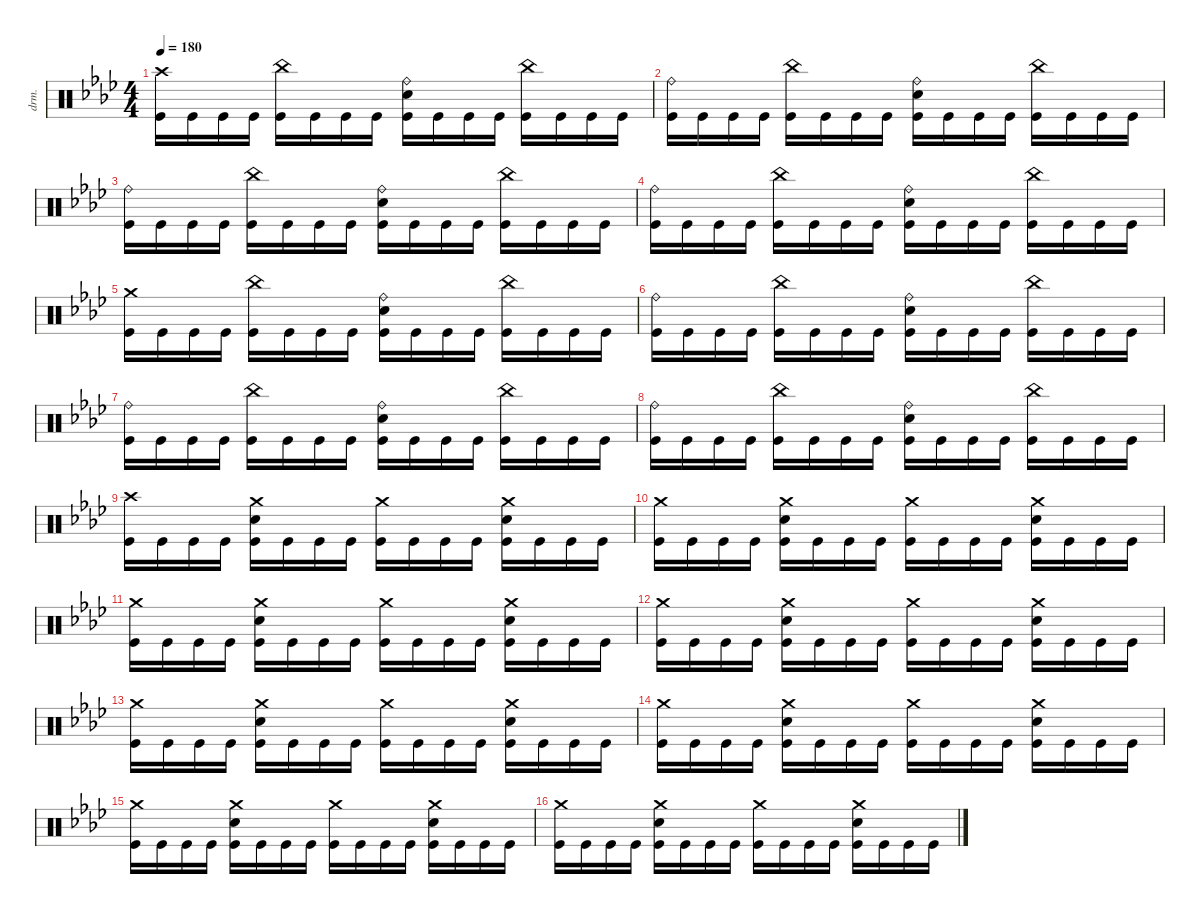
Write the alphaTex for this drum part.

\defaultSystemsLayout 4
\hideDynamics
\bracketExtendMode nobrackets
\track ("Percussion" "drm.") {instrument percussion}
\staff {score}
\articulation defaults
\ts (4 4)
\tempo 180
\clef neutral
\ks fminor
("Crash high (hit)"{acc forcenatural} "Kick (hit)"{acc forcenatural}).16{dy f beam Down} "Kick (hit)"{acc forcenatural}.16{beam Down} "Kick (hit)"{acc forcenatural}.16{beam Down} "Kick (hit)"{acc forcenatural}.16{beam Down} ("China (hit)"{acc forcenatural} "Kick (hit)"{acc forcenatural}).16{beam Down} "Kick (hit)"{acc forcenatural}.16{beam Down} "Kick (hit)"{acc forcenatural}.16{beam Down} "Kick (hit)"{acc forcenatural}.16{beam Down} ("Ride (bell)"{acc forcenatural} "Snare (hit) 2"{acc forcenatural} "Kick (hit)"{acc forcenatural}).16{beam Down} "Kick (hit)"{acc forcenatural}.16{beam Down} "Kick (hit)"{acc forcenatural}.16{beam Down} "Kick (hit)"{acc forcenatural}.16{beam Down} ("China (hit)"{acc forcenatural} "Kick (hit)"{acc forcenatural}).16{beam Down} "Kick (hit)"{acc forcenatural}.16{beam Down} "Kick (hit)"{acc forcenatural}.16{beam Down} "Kick (hit)"{acc forcenatural}.16{beam Down} |
("Ride (bell)"{acc forcenatural} "Kick (hit)"{acc forcenatural}).16{beam Down} "Kick (hit)"{acc forcenatural}.16{beam Down} "Kick (hit)"{acc forcenatural}.16{beam Down} "Kick (hit)"{acc forcenatural}.16{beam Down} ("China (hit)"{acc forcenatural} "Kick (hit)"{acc forcenatural}).16{beam Down} "Kick (hit)"{acc forcenatural}.16{beam Down} "Kick (hit)"{acc forcenatural}.16{beam Down} "Kick (hit)"{acc forcenatural}.16{beam Down} ("Ride (bell)"{acc forcenatural} "Snare (hit) 2"{acc forcenatural} "Kick (hit)"{acc forcenatural}).16{beam Down} "Kick (hit)"{acc forcenatural}.16{beam Down} "Kick (hit)"{acc forcenatural}.16{beam Down} "Kick (hit)"{acc forcenatural}.16{beam Down} ("China (hit)"{acc forcenatural} "Kick (hit)"{acc forcenatural}).16{beam Down} "Kick (hit)"{acc forcenatural}.16{beam Down} "Kick (hit)"{acc forcenatural}.16{beam Down} "Kick (hit)"{acc forcenatural}.16{beam Down} |
("Ride (bell)"{acc forcenatural} "Kick (hit)"{acc forcenatural}).16{beam Down} "Kick (hit)"{acc forcenatural}.16{beam Down} "Kick (hit)"{acc forcenatural}.16{beam Down} "Kick (hit)"{acc forcenatural}.16{beam Down} ("China (hit)"{acc forcenatural} "Kick (hit)"{acc forcenatural}).16{beam Down} "Kick (hit)"{acc forcenatural}.16{beam Down} "Kick (hit)"{acc forcenatural}.16{beam Down} "Kick (hit)"{acc forcenatural}.16{beam Down} ("Ride (bell)"{acc forcenatural} "Snare (hit) 2"{acc forcenatural} "Kick (hit)"{acc forcenatural}).16{beam Down} "Kick (hit)"{acc forcenatural}.16{beam Down} "Kick (hit)"{acc forcenatural}.16{beam Down} "Kick (hit)"{acc forcenatural}.16{beam Down} ("China (hit)"{acc forcenatural} "Kick (hit)"{acc forcenatural}).16{beam Down} "Kick (hit)"{acc forcenatural}.16{beam Down} "Kick (hit)"{acc forcenatural}.16{beam Down} "Kick (hit)"{acc forcenatural}.16{beam Down} |
("Ride (bell)"{acc forcenatural} "Kick (hit)"{acc forcenatural}).16{beam Down} "Kick (hit)"{acc forcenatural}.16{beam Down} "Kick (hit)"{acc forcenatural}.16{beam Down} "Kick (hit)"{acc forcenatural}.16{beam Down} ("China (hit)"{acc forcenatural} "Kick (hit)"{acc forcenatural}).16{beam Down} "Kick (hit)"{acc forcenatural}.16{beam Down} "Kick (hit)"{acc forcenatural}.16{beam Down} "Kick (hit)"{acc forcenatural}.16{beam Down} ("Ride (bell)"{acc forcenatural} "Snare (hit) 2"{acc forcenatural} "Kick (hit)"{acc forcenatural}).16{beam Down} "Kick (hit)"{acc forcenatural}.16{beam Down} "Kick (hit)"{acc forcenatural}.16{beam Down} "Kick (hit)"{acc forcenatural}.16{beam Down} ("China (hit)"{acc forcenatural} "Kick (hit)"{acc forcenatural}).16{beam Down} "Kick (hit)"{acc forcenatural}.16{beam Down} "Kick (hit)"{acc forcenatural}.16{beam Down} "Kick (hit)"{acc forcenatural}.16{beam Down} |
("Crash medium (hit)"{acc forcenatural} "Kick (hit)"{acc forcenatural}).16{beam Down} "Kick (hit)"{acc forcenatural}.16{beam Down} "Kick (hit)"{acc forcenatural}.16{beam Down} "Kick (hit)"{acc forcenatural}.16{beam Down} ("China (hit)"{acc forcenatural} "Kick (hit)"{acc forcenatural}).16{beam Down} "Kick (hit)"{acc forcenatural}.16{beam Down} "Kick (hit)"{acc forcenatural}.16{beam Down} "Kick (hit)"{acc forcenatural}.16{beam Down} ("Ride (bell)"{acc forcenatural} "Snare (hit) 2"{acc forcenatural} "Kick (hit)"{acc forcenatural}).16{beam Down} "Kick (hit)"{acc forcenatural}.16{beam Down} "Kick (hit)"{acc forcenatural}.16{beam Down} "Kick (hit)"{acc forcenatural}.16{beam Down} ("China (hit)"{acc forcenatural} "Kick (hit)"{acc forcenatural}).16{beam Down} "Kick (hit)"{acc forcenatural}.16{beam Down} "Kick (hit)"{acc forcenatural}.16{beam Down} "Kick (hit)"{acc forcenatural}.16{beam Down} |
("Ride (bell)"{acc forcenatural} "Kick (hit)"{acc forcenatural}).16{beam Down} "Kick (hit)"{acc forcenatural}.16{beam Down} "Kick (hit)"{acc forcenatural}.16{beam Down} "Kick (hit)"{acc forcenatural}.16{beam Down} ("China (hit)"{acc forcenatural} "Kick (hit)"{acc forcenatural}).16{beam Down} "Kick (hit)"{acc forcenatural}.16{beam Down} "Kick (hit)"{acc forcenatural}.16{beam Down} "Kick (hit)"{acc forcenatural}.16{beam Down} ("Ride (bell)"{acc forcenatural} "Snare (hit) 2"{acc forcenatural} "Kick (hit)"{acc forcenatural}).16{beam Down} "Kick (hit)"{acc forcenatural}.16{beam Down} "Kick (hit)"{acc forcenatural}.16{beam Down} "Kick (hit)"{acc forcenatural}.16{beam Down} ("China (hit)"{acc forcenatural} "Kick (hit)"{acc forcenatural}).16{beam Down} "Kick (hit)"{acc forcenatural}.16{beam Down} "Kick (hit)"{acc forcenatural}.16{beam Down} "Kick (hit)"{acc forcenatural}.16{beam Down} |
("Ride (bell)"{acc forcenatural} "Kick (hit)"{acc forcenatural}).16{beam Down} "Kick (hit)"{acc forcenatural}.16{beam Down} "Kick (hit)"{acc forcenatural}.16{beam Down} "Kick (hit)"{acc forcenatural}.16{beam Down} ("China (hit)"{acc forcenatural} "Kick (hit)"{acc forcenatural}).16{beam Down} "Kick (hit)"{acc forcenatural}.16{beam Down} "Kick (hit)"{acc forcenatural}.16{beam Down} "Kick (hit)"{acc forcenatural}.16{beam Down} ("Ride (bell)"{acc forcenatural} "Snare (hit) 2"{acc forcenatural} "Kick (hit)"{acc forcenatural}).16{beam Down} "Kick (hit)"{acc forcenatural}.16{beam Down} "Kick (hit)"{acc forcenatural}.16{beam Down} "Kick (hit)"{acc forcenatural}.16{beam Down} ("China (hit)"{acc forcenatural} "Kick (hit)"{acc forcenatural}).16{beam Down} "Kick (hit)"{acc forcenatural}.16{beam Down} "Kick (hit)"{acc forcenatural}.16{beam Down} "Kick (hit)"{acc forcenatural}.16{beam Down} |
("Ride (bell)"{acc forcenatural} "Kick (hit)"{acc forcenatural}).16{beam Down} "Kick (hit)"{acc forcenatural}.16{beam Down} "Kick (hit)"{acc forcenatural}.16{beam Down} "Kick (hit)"{acc forcenatural}.16{beam Down} ("China (hit)"{acc forcenatural} "Kick (hit)"{acc forcenatural}).16{beam Down} "Kick (hit)"{acc forcenatural}.16{beam Down} "Kick (hit)"{acc forcenatural}.16{beam Down} "Kick (hit)"{acc forcenatural}.16{beam Down} ("Ride (bell)"{acc forcenatural} "Snare (hit) 2"{acc forcenatural} "Kick (hit)"{acc forcenatural}).16{beam Down} "Kick (hit)"{acc forcenatural}.16{beam Down} "Kick (hit)"{acc forcenatural}.16{beam Down} "Kick (hit)"{acc forcenatural}.16{beam Down} ("China (hit)"{acc forcenatural} "Kick (hit)"{acc forcenatural}).16{beam Down} "Kick (hit)"{acc forcenatural}.16{beam Down} "Kick (hit)"{acc forcenatural}.16{beam Down} "Kick (hit)"{acc forcenatural}.16{beam Down} |
("Crash high (hit)"{acc forcenatural} "Kick (hit)"{acc forcenatural}).16{beam Down} "Kick (hit)"{acc forcenatural}.16{beam Down} "Kick (hit)"{acc forcenatural}.16{beam Down} "Kick (hit)"{acc forcenatural}.16{beam Down} ("Crash medium (hit)"{acc forcenatural} "Snare (hit) 2"{acc forcenatural} "Kick (hit)"{acc forcenatural}).16{beam Down} "Kick (hit)"{acc forcenatural}.16{beam Down} "Kick (hit)"{acc forcenatural}.16{beam Down} "Kick (hit)"{acc forcenatural}.16{beam Down} ("Crash medium (hit)"{acc forcenatural} "Kick (hit)"{acc forcenatural}).16{beam Down} "Kick (hit)"{acc forcenatural}.16{beam Down} "Kick (hit)"{acc forcenatural}.16{beam Down} "Kick (hit)"{acc forcenatural}.16{beam Down} ("Crash medium (hit)"{acc forcenatural} "Snare (hit) 2"{acc forcenatural} "Kick (hit)"{acc forcenatural}).16{beam Down} "Kick (hit)"{acc forcenatural}.16{beam Down} "Kick (hit)"{acc forcenatural}.16{beam Down} "Kick (hit)"{acc forcenatural}.16{beam Down} |
("Crash medium (hit)"{acc forcenatural} "Kick (hit)"{acc forcenatural}).16{beam Down} "Kick (hit)"{acc forcenatural}.16{beam Down} "Kick (hit)"{acc forcenatural}.16{beam Down} "Kick (hit)"{acc forcenatural}.16{beam Down} ("Crash medium (hit)"{acc forcenatural} "Snare (hit) 2"{acc forcenatural} "Kick (hit)"{acc forcenatural}).16{beam Down} "Kick (hit)"{acc forcenatural}.16{beam Down} "Kick (hit)"{acc forcenatural}.16{beam Down} "Kick (hit)"{acc forcenatural}.16{beam Down} ("Crash medium (hit)"{acc forcenatural} "Kick (hit)"{acc forcenatural}).16{beam Down} "Kick (hit)"{acc forcenatural}.16{beam Down} "Kick (hit)"{acc forcenatural}.16{beam Down} "Kick (hit)"{acc forcenatural}.16{beam Down} ("Crash medium (hit)"{acc forcenatural} "Snare (hit) 2"{acc forcenatural} "Kick (hit)"{acc forcenatural}).16{beam Down} "Kick (hit)"{acc forcenatural}.16{beam Down} "Kick (hit)"{acc forcenatural}.16{beam Down} "Kick (hit)"{acc forcenatural}.16{beam Down} |
("Crash medium (hit)"{acc forcenatural} "Kick (hit)"{acc forcenatural}).16{beam Down} "Kick (hit)"{acc forcenatural}.16{beam Down} "Kick (hit)"{acc forcenatural}.16{beam Down} "Kick (hit)"{acc forcenatural}.16{beam Down} ("Crash medium (hit)"{acc forcenatural} "Snare (hit) 2"{acc forcenatural} "Kick (hit)"{acc forcenatural}).16{beam Down} "Kick (hit)"{acc forcenatural}.16{beam Down} "Kick (hit)"{acc forcenatural}.16{beam Down} "Kick (hit)"{acc forcenatural}.16{beam Down} ("Crash medium (hit)"{acc forcenatural} "Kick (hit)"{acc forcenatural}).16{beam Down} "Kick (hit)"{acc forcenatural}.16{beam Down} "Kick (hit)"{acc forcenatural}.16{beam Down} "Kick (hit)"{acc forcenatural}.16{beam Down} ("Crash medium (hit)"{acc forcenatural} "Snare (hit) 2"{acc forcenatural} "Kick (hit)"{acc forcenatural}).16{beam Down} "Kick (hit)"{acc forcenatural}.16{beam Down} "Kick (hit)"{acc forcenatural}.16{beam Down} "Kick (hit)"{acc forcenatural}.16{beam Down} |
("Crash medium (hit)"{acc forcenatural} "Kick (hit)"{acc forcenatural}).16{beam Down} "Kick (hit)"{acc forcenatural}.16{beam Down} "Kick (hit)"{acc forcenatural}.16{beam Down} "Kick (hit)"{acc forcenatural}.16{beam Down} ("Crash medium (hit)"{acc forcenatural} "Snare (hit) 2"{acc forcenatural} "Kick (hit)"{acc forcenatural}).16{beam Down} "Kick (hit)"{acc forcenatural}.16{beam Down} "Kick (hit)"{acc forcenatural}.16{beam Down} "Kick (hit)"{acc forcenatural}.16{beam Down} ("Crash medium (hit)"{acc forcenatural} "Kick (hit)"{acc forcenatural}).16{beam Down} "Kick (hit)"{acc forcenatural}.16{beam Down} "Kick (hit)"{acc forcenatural}.16{beam Down} "Kick (hit)"{acc forcenatural}.16{beam Down} ("Crash medium (hit)"{acc forcenatural} "Snare (hit) 2"{acc forcenatural} "Kick (hit)"{acc forcenatural}).16{beam Down} "Kick (hit)"{acc forcenatural}.16{beam Down} "Kick (hit)"{acc forcenatural}.16{beam Down} "Kick (hit)"{acc forcenatural}.16{beam Down} |
("Crash medium (hit)"{acc forcenatural} "Kick (hit)"{acc forcenatural}).16{beam Down} "Kick (hit)"{acc forcenatural}.16{beam Down} "Kick (hit)"{acc forcenatural}.16{beam Down} "Kick (hit)"{acc forcenatural}.16{beam Down} ("Crash medium (hit)"{acc forcenatural} "Snare (hit) 2"{acc forcenatural} "Kick (hit)"{acc forcenatural}).16{beam Down} "Kick (hit)"{acc forcenatural}.16{beam Down} "Kick (hit)"{acc forcenatural}.16{beam Down} "Kick (hit)"{acc forcenatural}.16{beam Down} ("Crash medium (hit)"{acc forcenatural} "Kick (hit)"{acc forcenatural}).16{beam Down} "Kick (hit)"{acc forcenatural}.16{beam Down} "Kick (hit)"{acc forcenatural}.16{beam Down} "Kick (hit)"{acc forcenatural}.16{beam Down} ("Crash medium (hit)"{acc forcenatural} "Snare (hit) 2"{acc forcenatural} "Kick (hit)"{acc forcenatural}).16{beam Down} "Kick (hit)"{acc forcenatural}.16{beam Down} "Kick (hit)"{acc forcenatural}.16{beam Down} "Kick (hit)"{acc forcenatural}.16{beam Down} |
("Crash medium (hit)"{acc forcenatural} "Kick (hit)"{acc forcenatural}).16{beam Down} "Kick (hit)"{acc forcenatural}.16{beam Down} "Kick (hit)"{acc forcenatural}.16{beam Down} "Kick (hit)"{acc forcenatural}.16{beam Down} ("Crash medium (hit)"{acc forcenatural} "Snare (hit) 2"{acc forcenatural} "Kick (hit)"{acc forcenatural}).16{beam Down} "Kick (hit)"{acc forcenatural}.16{beam Down} "Kick (hit)"{acc forcenatural}.16{beam Down} "Kick (hit)"{acc forcenatural}.16{beam Down} ("Crash medium (hit)"{acc forcenatural} "Kick (hit)"{acc forcenatural}).16{beam Down} "Kick (hit)"{acc forcenatural}.16{beam Down} "Kick (hit)"{acc forcenatural}.16{beam Down} "Kick (hit)"{acc forcenatural}.16{beam Down} ("Crash medium (hit)"{acc forcenatural} "Snare (hit) 2"{acc forcenatural} "Kick (hit)"{acc forcenatural}).16{beam Down} "Kick (hit)"{acc forcenatural}.16{beam Down} "Kick (hit)"{acc forcenatural}.16{beam Down} "Kick (hit)"{acc forcenatural}.16{beam Down} |
("Crash medium (hit)"{acc forcenatural} "Kick (hit)"{acc forcenatural}).16{beam Down} "Kick (hit)"{acc forcenatural}.16{beam Down} "Kick (hit)"{acc forcenatural}.16{beam Down} "Kick (hit)"{acc forcenatural}.16{beam Down} ("Crash medium (hit)"{acc forcenatural} "Snare (hit) 2"{acc forcenatural} "Kick (hit)"{acc forcenatural}).16{beam Down} "Kick (hit)"{acc forcenatural}.16{beam Down} "Kick (hit)"{acc forcenatural}.16{beam Down} "Kick (hit)"{acc forcenatural}.16{beam Down} ("Crash medium (hit)"{acc forcenatural} "Kick (hit)"{acc forcenatural}).16{beam Down} "Kick (hit)"{acc forcenatural}.16{beam Down} "Kick (hit)"{acc forcenatural}.16{beam Down} "Kick (hit)"{acc forcenatural}.16{beam Down} ("Crash medium (hit)"{acc forcenatural} "Snare (hit) 2"{acc forcenatural} "Kick (hit)"{acc forcenatural}).16{beam Down} "Kick (hit)"{acc forcenatural}.16{beam Down} "Kick (hit)"{acc forcenatural}.16{beam Down} "Kick (hit)"{acc forcenatural}.16{beam Down} |
("Crash medium (hit)"{acc forcenatural} "Kick (hit)"{acc forcenatural}).16{beam Down} "Kick (hit)"{acc forcenatural}.16{beam Down} "Kick (hit)"{acc forcenatural}.16{beam Down} "Kick (hit)"{acc forcenatural}.16{beam Down} ("Crash medium (hit)"{acc forcenatural} "Snare (hit) 2"{acc forcenatural} "Kick (hit)"{acc forcenatural}).16{beam Down} "Kick (hit)"{acc forcenatural}.16{beam Down} "Kick (hit)"{acc forcenatural}.16{beam Down} "Kick (hit)"{acc forcenatural}.16{beam Down} ("Crash medium (hit)"{acc forcenatural} "Kick (hit)"{acc forcenatural}).16{beam Down} "Kick (hit)"{acc forcenatural}.16{beam Down} "Kick (hit)"{acc forcenatural}.16{beam Down} "Kick (hit)"{acc forcenatural}.16{beam Down} ("Crash medium (hit)"{acc forcenatural} "Snare (hit) 2"{acc forcenatural} "Kick (hit)"{acc forcenatural}).16{beam Down} "Kick (hit)"{acc forcenatural}.16{beam Down} "Kick (hit)"{acc forcenatural}.16{beam Down} "Kick (hit)"{acc forcenatural}.16{beam Down}
